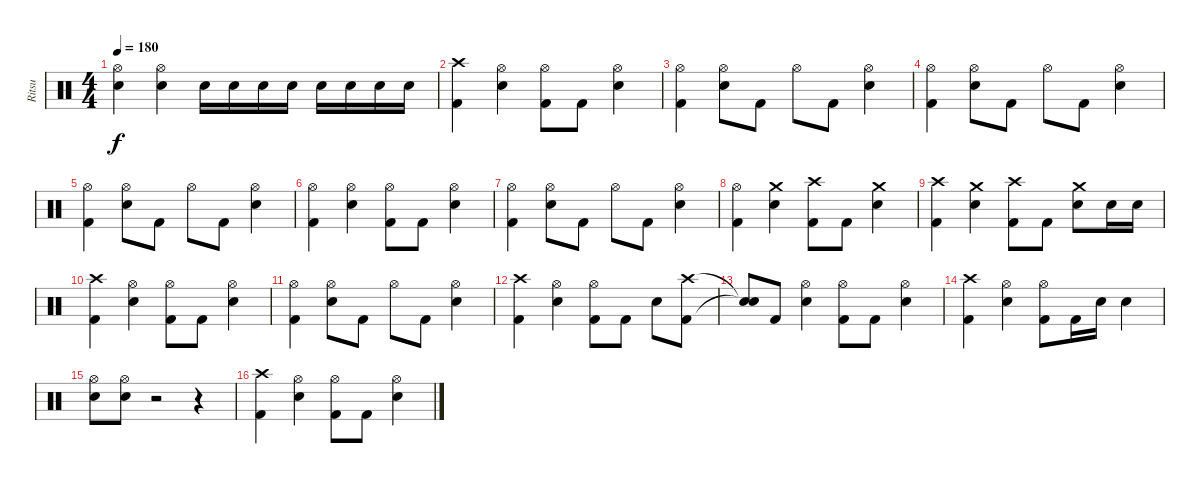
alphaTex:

\track ("Ritsu" "Ritsu") {instrument percussion}
\staff {score}
\articulation defaults
\ts (4 4)
\tempo 180
\clef neutral
\ks c
("Hi-Hat (open)" "Snare (hit) 2").4{dy f} ("Hi-Hat (open)" "Snare (hit) 2").4 "Snare (hit) 2".16 "Snare (hit) 2".16 "Snare (hit) 2".16 "Snare (hit) 2".16 "Snare (hit) 2".16 "Snare (hit) 2".16 "Snare (hit) 2".16 "Snare (hit) 2".16 |
("Crash high (hit)" "Kick (hit) 2").4 ("Hi-Hat (open)" "Snare (hit) 2").4 ("Hi-Hat (open)" "Kick (hit) 2").8 "Kick (hit) 2".8 ("Hi-Hat (open)" "Snare (hit) 2").4 |
("Hi-Hat (open)" "Kick (hit) 2").4 ("Hi-Hat (open)" "Snare (hit) 2").8 "Kick (hit) 2".8 "Hi-Hat (open)".8 "Kick (hit) 2".8 ("Hi-Hat (open)" "Snare (hit) 2").4 |
("Hi-Hat (open)" "Kick (hit) 2").4 ("Hi-Hat (open)" "Snare (hit) 2").8 "Kick (hit) 2".8 "Hi-Hat (open)".8 "Kick (hit) 2".8 ("Hi-Hat (open)" "Snare (hit) 2").4 |
("Hi-Hat (open)" "Kick (hit) 2").4 ("Hi-Hat (open)" "Snare (hit) 2").8 "Kick (hit) 2".8 "Hi-Hat (open)".8 "Kick (hit) 2".8 ("Hi-Hat (open)" "Snare (hit) 2").4 |
("Hi-Hat (open)" "Kick (hit) 2").4 ("Hi-Hat (open)" "Snare (hit) 2").4 ("Hi-Hat (open)" "Kick (hit) 2").8 "Kick (hit) 2".8 ("Hi-Hat (open)" "Snare (hit) 2").4 |
("Hi-Hat (open)" "Kick (hit) 2").4 ("Hi-Hat (open)" "Snare (hit) 2").8 "Kick (hit) 2".8 "Hi-Hat (open)".8 "Kick (hit) 2".8 ("Hi-Hat (open)" "Snare (hit) 2").4 |
("Hi-Hat (open)" "Kick (hit) 2").4 ("Crash medium (hit)" "Snare (hit) 2").4 ("Crash high (hit)" "Kick (hit) 2").8 "Kick (hit) 2".8 ("Crash medium (hit)" "Snare (hit) 2").4 |
("Crash high (hit)" "Kick (hit) 2").4 ("Crash medium (hit)" "Snare (hit) 2").4 ("Crash high (hit)" "Kick (hit) 2").8 "Kick (hit) 2".8 ("Crash medium (hit)" "Snare (hit) 2").8 "Snare (hit) 2".16 "Snare (hit) 2".16 |
("Crash high (hit)" "Kick (hit) 2").4 ("Hi-Hat (open)" "Snare (hit) 2").4 ("Hi-Hat (open)" "Kick (hit) 2").8 "Kick (hit) 2".8 ("Hi-Hat (open)" "Snare (hit) 2").4 |
("Hi-Hat (open)" "Kick (hit) 2").4 ("Hi-Hat (open)" "Snare (hit) 2").8 "Kick (hit) 2".8 "Hi-Hat (open)".8 "Kick (hit) 2".8 ("Hi-Hat (open)" "Snare (hit) 2").4 |
("Crash high (hit)" "Kick (hit) 2").4 ("Hi-Hat (open)" "Snare (hit) 2").4 ("Hi-Hat (open)" "Kick (hit) 2").8 "Kick (hit) 2".8 "Snare (hit) 2".8 ("Crash high (hit)" "Kick (hit) 2").8 |
("Snare (hit)"{t} "Snare (hit)"{t}).8 "Kick (hit) 2".8 ("Hi-Hat (open)" "Snare (hit) 2").4 ("Hi-Hat (open)" "Kick (hit) 2").8 "Kick (hit) 2".8 ("Hi-Hat (open)" "Snare (hit) 2").4 |
("Crash high (hit)" "Kick (hit) 2").4 ("Hi-Hat (open)" "Snare (hit) 2").4 ("Hi-Hat (open)" "Kick (hit) 2").8 "Kick (hit) 2".16 "Snare (hit) 2".16 "Snare (hit) 2".4 |
("Hi-Hat (open)" "Snare (hit) 2").8 ("Hi-Hat (open)" "Snare (hit) 2").8 r.2 r.4 |
("Crash high (hit)" "Kick (hit) 2").4 ("Hi-Hat (open)" "Snare (hit) 2").4 ("Hi-Hat (open)" "Kick (hit) 2").8 "Kick (hit) 2".8 ("Hi-Hat (open)" "Snare (hit) 2").4
